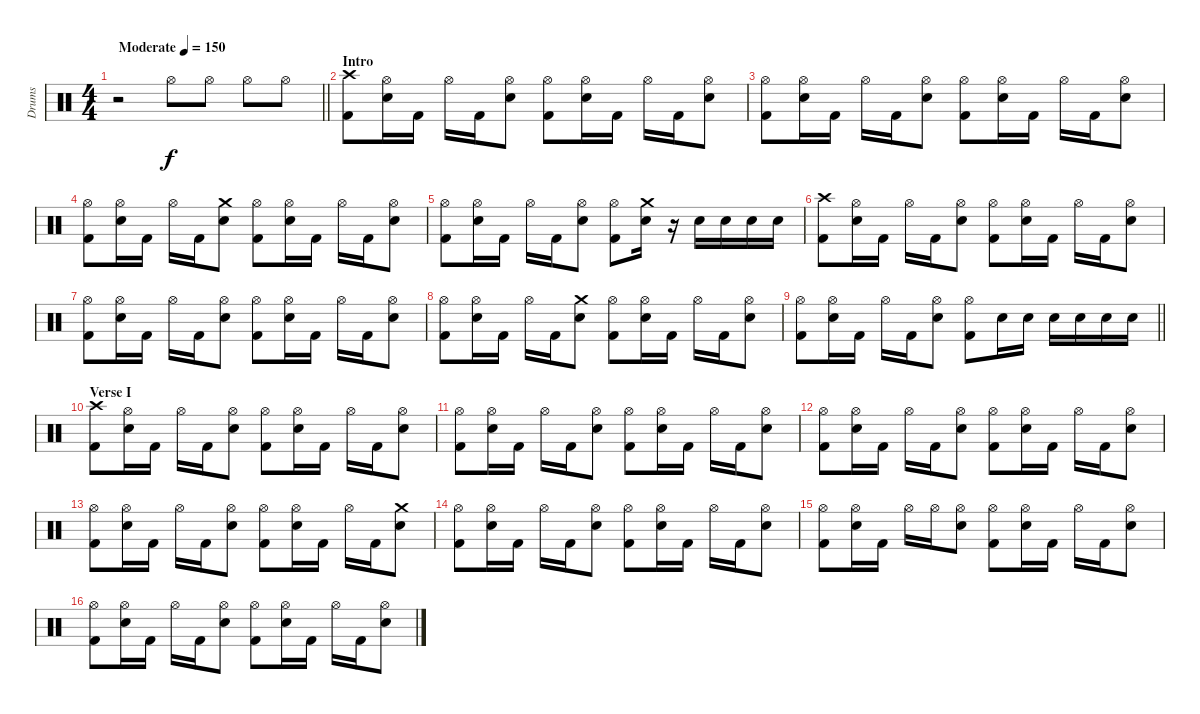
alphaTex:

\track ("Drums" "Drums") {instrument percussion}
\staff {score}
\articulation defaults
\ts (4 4)
\tempo (150 "Moderate")
\clef neutral
\barLineRight lightlight
\ks c
r.2{dy f} "Hi-Hat (open)".8 "Hi-Hat (open)".8 "Hi-Hat (open)".8 "Hi-Hat (open)".8 |
\section ("" "Intro")
("Crash high (hit)" "Kick (hit) 2").8 ("Hi-Hat (open)" "Electric Snare (hit)").16 "Kick (hit) 2".16 "Hi-Hat (open)".16 "Kick (hit) 2".16 ("Hi-Hat (open)" "Electric Snare (hit)").8 ("Hi-Hat (open)" "Kick (hit) 2").8 ("Hi-Hat (open)" "Electric Snare (hit)").16 "Kick (hit) 2".16 "Hi-Hat (open)".16 "Kick (hit) 2".16 ("Hi-Hat (open)" "Electric Snare (hit)").8 |
("Hi-Hat (open)" "Kick (hit) 2").8 ("Hi-Hat (open)" "Electric Snare (hit)").16 "Kick (hit) 2".16 "Hi-Hat (open)".16 "Kick (hit) 2".16 ("Hi-Hat (open)" "Electric Snare (hit)").8 ("Hi-Hat (open)" "Kick (hit) 2").8 ("Hi-Hat (open)" "Electric Snare (hit)").16 "Kick (hit) 2".16 "Hi-Hat (open)".16 "Kick (hit) 2".16 ("Hi-Hat (open)" "Electric Snare (hit)").8 |
("Hi-Hat (open)" "Kick (hit) 2").8 ("Hi-Hat (open)" "Electric Snare (hit)").16 "Kick (hit) 2".16 "Hi-Hat (open)".16 "Kick (hit) 2".16 ("Crash medium (hit)" "Electric Snare (hit)").8 ("Hi-Hat (open)" "Kick (hit) 2").8 ("Hi-Hat (open)" "Electric Snare (hit)").16 "Kick (hit) 2".16 "Hi-Hat (open)".16 "Kick (hit) 2".16 ("Hi-Hat (open)" "Electric Snare (hit)").8 |
("Hi-Hat (open)" "Kick (hit) 2").8 ("Hi-Hat (open)" "Electric Snare (hit)").16 "Kick (hit) 2".16 "Hi-Hat (open)".16 "Kick (hit) 2".16 ("Hi-Hat (open)" "Electric Snare (hit)").8 ("Hi-Hat (open)" "Kick (hit) 2").8 ("Crash medium (hit)" "Electric Snare (hit)").16 r.16 "Electric Snare (hit)".16 "Electric Snare (hit)".16 "Electric Snare (hit)".16 "Electric Snare (hit)".16 |
("Crash high (hit)" "Kick (hit) 2").8 ("Hi-Hat (open)" "Electric Snare (hit)").16 "Kick (hit) 2".16 "Hi-Hat (open)".16 "Kick (hit) 2".16 ("Hi-Hat (open)" "Electric Snare (hit)").8 ("Hi-Hat (open)" "Kick (hit) 2").8 ("Hi-Hat (open)" "Electric Snare (hit)").16 "Kick (hit) 2".16 "Hi-Hat (open)".16 "Kick (hit) 2".16 ("Hi-Hat (open)" "Electric Snare (hit)").8 |
("Hi-Hat (open)" "Kick (hit) 2").8 ("Hi-Hat (open)" "Electric Snare (hit)").16 "Kick (hit) 2".16 "Hi-Hat (open)".16 "Kick (hit) 2".16 ("Hi-Hat (open)" "Electric Snare (hit)").8 ("Hi-Hat (open)" "Kick (hit) 2").8 ("Hi-Hat (open)" "Electric Snare (hit)").16 "Kick (hit) 2".16 "Hi-Hat (open)".16 "Kick (hit) 2".16 ("Hi-Hat (open)" "Electric Snare (hit)").8 |
("Hi-Hat (open)" "Kick (hit) 2").8 ("Hi-Hat (open)" "Electric Snare (hit)").16 "Kick (hit) 2".16 "Hi-Hat (open)".16 "Kick (hit) 2".16 ("Crash medium (hit)" "Electric Snare (hit)").8 ("Hi-Hat (open)" "Kick (hit) 2").8 ("Hi-Hat (open)" "Electric Snare (hit)").16 "Kick (hit) 2".16 "Hi-Hat (open)".16 "Kick (hit) 2".16 ("Hi-Hat (open)" "Electric Snare (hit)").8 |
\barLineRight lightlight
("Hi-Hat (open)" "Kick (hit) 2").8 ("Hi-Hat (open)" "Electric Snare (hit)").16 "Kick (hit) 2".16 "Hi-Hat (open)".16 "Kick (hit) 2".16 ("Hi-Hat (open)" "Electric Snare (hit)").8 ("Hi-Hat (open)" "Kick (hit) 2").8 "Electric Snare (hit)".16 "Electric Snare (hit)".16 "Electric Snare (hit)".16 "Electric Snare (hit)".16 "Electric Snare (hit)".16 "Electric Snare (hit)".16 |
\section ("" "Verse I")
("Crash high (hit)" "Kick (hit) 2").8 ("Hi-Hat (open)" "Electric Snare (hit)").16 "Kick (hit) 2".16 "Hi-Hat (open)".16 "Kick (hit) 2".16 ("Hi-Hat (open)" "Electric Snare (hit)").8 ("Hi-Hat (open)" "Kick (hit) 2").8 ("Hi-Hat (open)" "Electric Snare (hit)").16 "Kick (hit) 2".16 "Hi-Hat (open)".16 "Kick (hit) 2".16 ("Hi-Hat (open)" "Electric Snare (hit)").8 |
("Hi-Hat (open)" "Kick (hit) 2").8 ("Hi-Hat (open)" "Electric Snare (hit)").16 "Kick (hit) 2".16 "Hi-Hat (open)".16 "Kick (hit) 2".16 ("Hi-Hat (open)" "Electric Snare (hit)").8 ("Hi-Hat (open)" "Kick (hit) 2").8 ("Hi-Hat (open)" "Electric Snare (hit)").16 "Kick (hit) 2".16 "Hi-Hat (open)".16 "Kick (hit) 2".16 ("Hi-Hat (open)" "Electric Snare (hit)").8 |
("Hi-Hat (open)" "Kick (hit) 2").8 ("Hi-Hat (open)" "Electric Snare (hit)").16 "Kick (hit) 2".16 "Hi-Hat (open)".16 "Kick (hit) 2".16 ("Hi-Hat (open)" "Electric Snare (hit)").8 ("Hi-Hat (open)" "Kick (hit) 2").8 ("Hi-Hat (open)" "Electric Snare (hit)").16 "Kick (hit) 2".16 "Hi-Hat (open)".16 "Kick (hit) 2".16 ("Hi-Hat (open)" "Electric Snare (hit)").8 |
("Hi-Hat (open)" "Kick (hit) 2").8 ("Hi-Hat (open)" "Electric Snare (hit)").16 "Kick (hit) 2".16 "Hi-Hat (open)".16 "Kick (hit) 2".16 ("Hi-Hat (open)" "Electric Snare (hit)").8 ("Hi-Hat (open)" "Kick (hit) 2").8 ("Hi-Hat (open)" "Electric Snare (hit)").16 "Kick (hit) 2".16 "Hi-Hat (open)".16 "Kick (hit) 2".16 ("Crash medium (hit)" "Electric Snare (hit)").8 |
("Hi-Hat (open)" "Kick (hit) 2").8 ("Hi-Hat (open)" "Electric Snare (hit)").16 "Kick (hit) 2".16 "Hi-Hat (open)".16 "Kick (hit) 2".16 ("Hi-Hat (open)" "Electric Snare (hit)").8 ("Hi-Hat (open)" "Kick (hit) 2").8 ("Hi-Hat (open)" "Electric Snare (hit)").16 "Kick (hit) 2".16 "Hi-Hat (open)".16 "Kick (hit) 2".16 ("Hi-Hat (open)" "Electric Snare (hit)").8 |
("Hi-Hat (open)" "Kick (hit) 2").8 ("Hi-Hat (open)" "Electric Snare (hit)").16 "Kick (hit) 2".16 "Hi-Hat (open)".16 "Hi-Hat (open)".16 ("Hi-Hat (open)" "Electric Snare (hit)").8 ("Hi-Hat (open)" "Kick (hit) 2").8 ("Hi-Hat (open)" "Electric Snare (hit)").16 "Kick (hit) 2".16 "Hi-Hat (open)".16 "Kick (hit) 2".16 ("Hi-Hat (open)" "Electric Snare (hit)").8 |
("Hi-Hat (open)" "Kick (hit) 2").8 ("Hi-Hat (open)" "Electric Snare (hit)").16 "Kick (hit) 2".16 "Hi-Hat (open)".16 "Kick (hit) 2".16 ("Hi-Hat (open)" "Electric Snare (hit)").8 ("Hi-Hat (open)" "Kick (hit) 2").8 ("Hi-Hat (open)" "Electric Snare (hit)").16 "Kick (hit) 2".16 "Hi-Hat (open)".16 "Kick (hit) 2".16 ("Hi-Hat (open)" "Electric Snare (hit)").8
